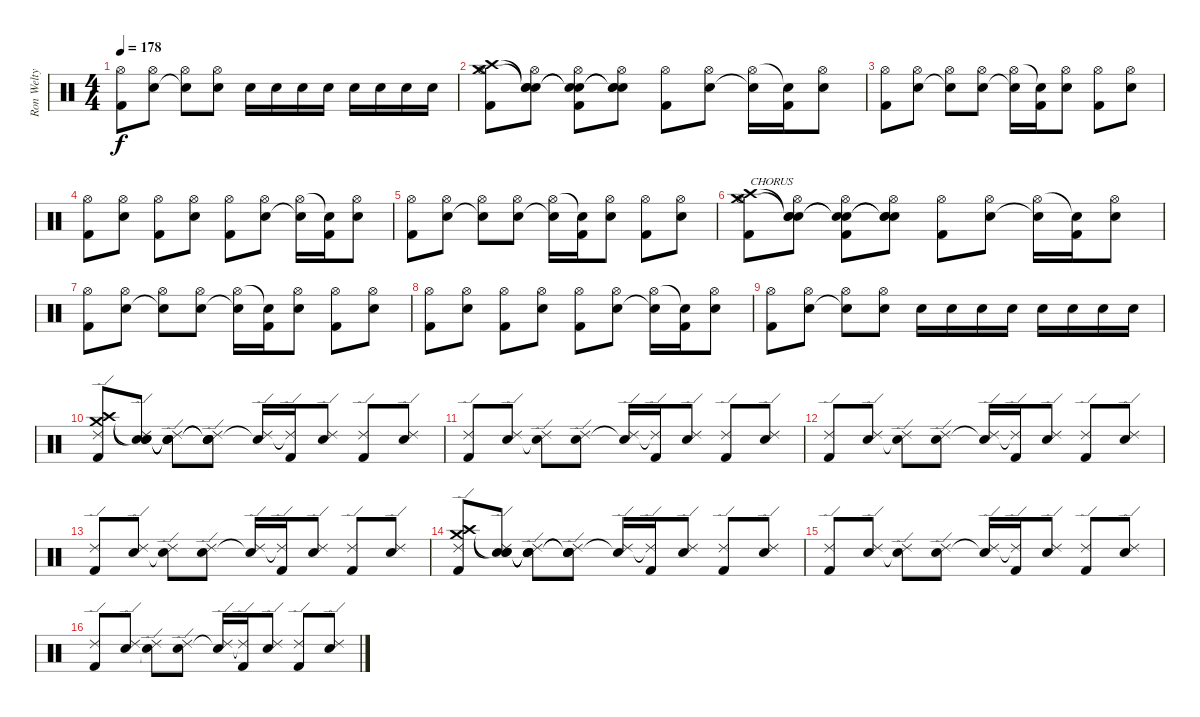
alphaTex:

\track ("Ron Welty (Drums)" "Ron Welty ") {instrument percussion}
\staff {score}
\articulation defaults
\ts (4 4)
\tempo 178
\clef neutral
\ks c
("Hi-Hat (open)" "Kick (hit) 2").8{dy f} ("Hi-Hat (open)" "Electric Snare (hit)").8 ("Hi-Hat (open)" "Snare (hit)"{t}).8 ("Hi-Hat (open)" "Electric Snare (hit)").8 "Electric Snare (hit)".16 "Electric Snare (hit)".16 "Electric Snare (hit)".16 "Electric Snare (hit)".16 "Electric Snare (hit)".16 "Electric Snare (hit)".16 "Electric Snare (hit)".16 "Electric Snare (hit)".16 |
("Crash medium (hit)" "Crash high (hit)" "Hi-Hat (open)" "Kick (hit) 2").8 ("Snare (hit)"{t} "Snare (hit)"{t} "Hi-Hat (open)" "Electric Snare (hit)").8 ("Snare (hit)"{t} "Snare (hit)"{t} "Hi-Hat (open)" "Kick (hit) 2").8 ("Snare (hit)"{t} "Snare (hit)"{t} "Hi-Hat (open)" "Electric Snare (hit)").8 ("Hi-Hat (open)" "Kick (hit) 2").8 ("Hi-Hat (open)" "Electric Snare (hit)").8 ("Hi-Hat (open)" "Snare (hit)"{t}).16 ("Snare (hit)"{t} "Kick (hit) 2").16 ("Hi-Hat (open)" "Electric Snare (hit)").8 |
("Hi-Hat (open)" "Kick (hit) 2").8 ("Hi-Hat (open)" "Electric Snare (hit)").8 ("Hi-Hat (open)" "Snare (hit)"{t}).8 ("Hi-Hat (open)" "Electric Snare (hit)").8 ("Hi-Hat (open)" "Snare (hit)"{t}).16 ("Snare (hit)"{t} "Kick (hit) 2").16 ("Hi-Hat (open)" "Electric Snare (hit)").8 ("Hi-Hat (open)" "Kick (hit) 2").8 ("Hi-Hat (open)" "Electric Snare (hit)").8 |
("Hi-Hat (open)" "Kick (hit) 2").8 ("Hi-Hat (open)" "Electric Snare (hit)").8 ("Hi-Hat (open)" "Kick (hit) 2").8 ("Hi-Hat (open)" "Electric Snare (hit)").8 ("Hi-Hat (open)" "Kick (hit) 2").8 ("Hi-Hat (open)" "Electric Snare (hit)").8 ("Hi-Hat (open)" "Snare (hit)"{t}).16 ("Snare (hit)"{t} "Kick (hit) 2").16 ("Hi-Hat (open)" "Electric Snare (hit)").8 |
("Hi-Hat (open)" "Kick (hit) 2").8 ("Hi-Hat (open)" "Electric Snare (hit)").8 ("Hi-Hat (open)" "Snare (hit)"{t}).8 ("Hi-Hat (open)" "Electric Snare (hit)").8 ("Hi-Hat (open)" "Snare (hit)"{t}).16 ("Snare (hit)"{t} "Kick (hit) 2").16 ("Hi-Hat (open)" "Electric Snare (hit)").8 ("Hi-Hat (open)" "Kick (hit) 2").8 ("Hi-Hat (open)" "Electric Snare (hit)").8 |
("Crash medium (hit)" "Crash high (hit)" "Hi-Hat (open)" "Kick (hit) 2").8{txt "CHORUS"} ("Snare (hit)"{t} "Snare (hit)"{t} "Hi-Hat (open)" "Electric Snare (hit)").8 ("Snare (hit)"{t} "Snare (hit)"{t} "Hi-Hat (open)" "Kick (hit) 2").8 ("Snare (hit)"{t} "Snare (hit)"{t} "Hi-Hat (open)" "Electric Snare (hit)").8 ("Hi-Hat (open)" "Kick (hit) 2").8 ("Hi-Hat (open)" "Electric Snare (hit)").8 ("Hi-Hat (open)" "Snare (hit)"{t}).16 ("Snare (hit)"{t} "Kick (hit) 2").16 ("Hi-Hat (open)" "Electric Snare (hit)").8 |
("Hi-Hat (open)" "Kick (hit) 2").8 ("Hi-Hat (open)" "Electric Snare (hit)").8 ("Hi-Hat (open)" "Snare (hit)"{t}).8 ("Hi-Hat (open)" "Electric Snare (hit)").8 ("Hi-Hat (open)" "Snare (hit)"{t}).16 ("Snare (hit)"{t} "Kick (hit) 2").16 ("Hi-Hat (open)" "Electric Snare (hit)").8 ("Hi-Hat (open)" "Kick (hit) 2").8 ("Hi-Hat (open)" "Electric Snare (hit)").8 |
("Hi-Hat (open)" "Kick (hit) 2").8 ("Hi-Hat (open)" "Electric Snare (hit)").8 ("Hi-Hat (open)" "Kick (hit) 2").8 ("Hi-Hat (open)" "Electric Snare (hit)").8 ("Hi-Hat (open)" "Kick (hit) 2").8 ("Hi-Hat (open)" "Electric Snare (hit)").8 ("Hi-Hat (open)" "Snare (hit)"{t}).16 ("Snare (hit)"{t} "Kick (hit) 2").16 ("Hi-Hat (open)" "Electric Snare (hit)").8 |
("Hi-Hat (open)" "Kick (hit) 2").8 ("Hi-Hat (open)" "Electric Snare (hit)").8 ("Hi-Hat (open)" "Snare (hit)"{t}).8 ("Hi-Hat (open)" "Electric Snare (hit)").8 "Electric Snare (hit)".16 "Electric Snare (hit)".16 "Electric Snare (hit)".16 "Electric Snare (hit)".16 "Electric Snare (hit)".16 "Electric Snare (hit)".16 "Electric Snare (hit)".16 "Electric Snare (hit)".16 |
("Crash medium (hit)" "Crash high (hit)" "Ride (edge) 2" "Kick (hit) 2").8 ("Snare (hit)"{t} "Snare (hit)"{t} "Ride (edge) 2" "Electric Snare (hit)").8 ("Snare (hit)"{t} "Snare (hit)"{t} "Ride (edge) 2" "Snare (hit)"{t}).8 ("Snare (hit)"{t} "Snare (hit)"{t} "Ride (edge) 2" "Electric Snare (hit)").8 ("Ride (edge) 2" "Snare (hit)"{t}).16 ("Ride (edge) 2"{t} "Kick (hit) 2").16 ("Ride (edge) 2" "Electric Snare (hit)").8 ("Ride (edge) 2" "Kick (hit) 2").8 ("Ride (edge) 2" "Electric Snare (hit)").8 |
("Ride (edge) 2" "Kick (hit) 2").8 ("Ride (edge) 2" "Electric Snare (hit)").8 ("Ride (edge) 2" "Snare (hit)"{t}).8 ("Ride (edge) 2" "Electric Snare (hit)").8 ("Ride (edge) 2" "Snare (hit)"{t}).16 ("Ride (edge) 2"{t} "Kick (hit) 2").16 ("Ride (edge) 2" "Electric Snare (hit)").8 ("Ride (edge) 2" "Kick (hit) 2").8 ("Ride (edge) 2" "Electric Snare (hit)").8 |
("Ride (edge) 2" "Kick (hit) 2").8 ("Ride (edge) 2" "Electric Snare (hit)").8 ("Ride (edge) 2" "Snare (hit)"{t}).8 ("Ride (edge) 2" "Electric Snare (hit)").8 ("Ride (edge) 2" "Snare (hit)"{t}).16 ("Ride (edge) 2"{t} "Kick (hit) 2").16 ("Ride (edge) 2" "Electric Snare (hit)").8 ("Ride (edge) 2" "Kick (hit) 2").8 ("Ride (edge) 2" "Electric Snare (hit)").8 |
("Ride (edge) 2" "Kick (hit) 2").8 ("Ride (edge) 2" "Electric Snare (hit)").8 ("Ride (edge) 2" "Snare (hit)"{t}).8 ("Ride (edge) 2" "Electric Snare (hit)").8 ("Ride (edge) 2" "Snare (hit)"{t}).16 ("Ride (edge) 2"{t} "Kick (hit) 2").16 ("Ride (edge) 2" "Electric Snare (hit)").8 ("Ride (edge) 2" "Kick (hit) 2").8 ("Ride (edge) 2" "Electric Snare (hit)").8 |
("Crash medium (hit)" "Crash high (hit)" "Ride (edge) 2" "Kick (hit) 2").8 ("Snare (hit)"{t} "Snare (hit)"{t} "Ride (edge) 2" "Electric Snare (hit)").8 ("Snare (hit)"{t} "Snare (hit)"{t} "Ride (edge) 2" "Snare (hit)"{t}).8 ("Snare (hit)"{t} "Snare (hit)"{t} "Ride (edge) 2" "Electric Snare (hit)").8 ("Ride (edge) 2" "Snare (hit)"{t}).16 ("Ride (edge) 2"{t} "Kick (hit) 2").16 ("Ride (edge) 2" "Electric Snare (hit)").8 ("Ride (edge) 2" "Kick (hit) 2").8 ("Ride (edge) 2" "Electric Snare (hit)").8 |
("Ride (edge) 2" "Kick (hit) 2").8 ("Ride (edge) 2" "Electric Snare (hit)").8 ("Ride (edge) 2" "Snare (hit)"{t}).8 ("Ride (edge) 2" "Electric Snare (hit)").8 ("Ride (edge) 2" "Snare (hit)"{t}).16 ("Ride (edge) 2"{t} "Kick (hit) 2").16 ("Ride (edge) 2" "Electric Snare (hit)").8 ("Ride (edge) 2" "Kick (hit) 2").8 ("Ride (edge) 2" "Electric Snare (hit)").8 |
("Ride (edge) 2" "Kick (hit) 2").8 ("Ride (edge) 2" "Electric Snare (hit)").8 ("Ride (edge) 2" "Snare (hit)"{t}).8 ("Ride (edge) 2" "Electric Snare (hit)").8 ("Ride (edge) 2" "Snare (hit)"{t}).16 ("Ride (edge) 2"{t} "Kick (hit) 2").16 ("Ride (edge) 2" "Electric Snare (hit)").8 ("Ride (edge) 2" "Kick (hit) 2").8 ("Ride (edge) 2" "Electric Snare (hit)").8
